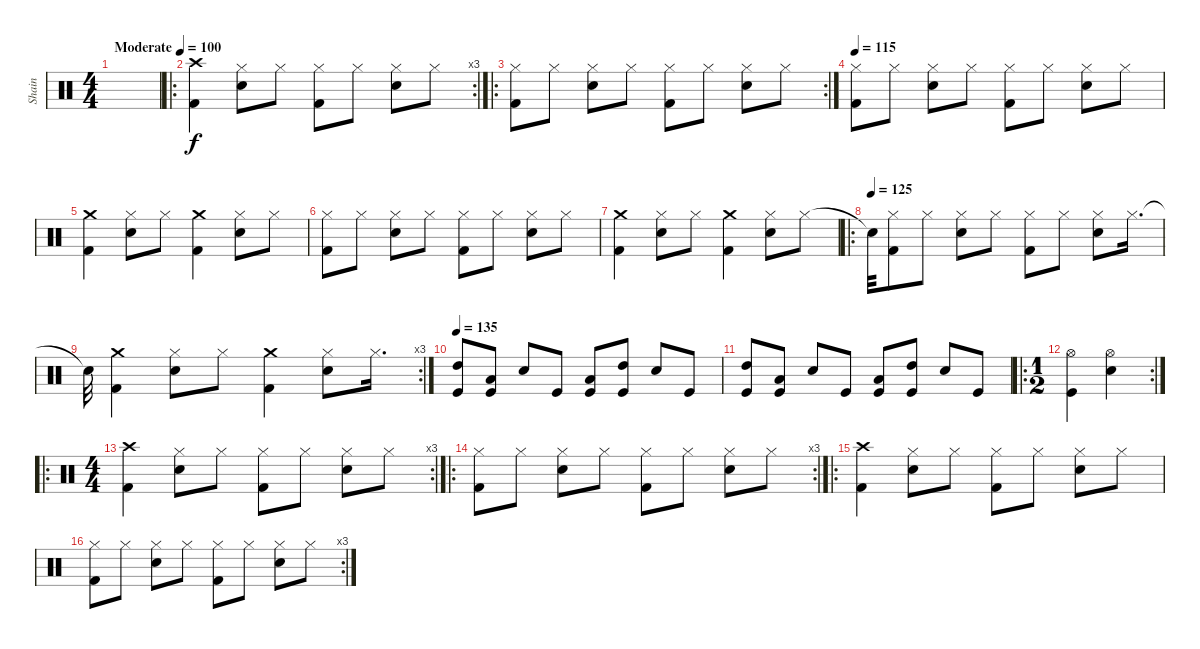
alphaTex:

\track ("Shain" "Shain") {instrument percussion}
\staff {score}
\articulation defaults
\ts (4 4)
\tempo (100 "Moderate")
\clef neutral
\ks c
|
\ro
\rc 3
("Kick (hit) 2" "Crash high (hit)").4 ("Hi-Hat (closed)" "Electric Snare (hit)").8 "Hi-Hat (closed)".8 ("Hi-Hat (closed)" "Kick (hit) 2").8 "Hi-Hat (closed)".8 ("Hi-Hat (closed)" "Electric Snare (hit)").8 "Hi-Hat (closed)".8 |
\ro
\rc 2
("Hi-Hat (closed)" "Kick (hit) 2").8 "Hi-Hat (closed)".8 ("Hi-Hat (closed)" "Electric Snare (hit)").8 "Hi-Hat (closed)".8 ("Hi-Hat (closed)" "Kick (hit) 2").8 "Hi-Hat (closed)".8 ("Hi-Hat (closed)" "Electric Snare (hit)").8 "Hi-Hat (closed)".8 |
\tempo 115
("Hi-Hat (closed)" "Kick (hit) 2").8 "Hi-Hat (closed)".8 ("Hi-Hat (closed)" "Electric Snare (hit)").8 "Hi-Hat (closed)".8 ("Hi-Hat (closed)" "Kick (hit) 2").8 "Hi-Hat (closed)".8 ("Hi-Hat (closed)" "Electric Snare (hit)").8 "Hi-Hat (closed)".8 |
("Crash medium (hit)" "Kick (hit) 2").4 ("Hi-Hat (closed)" "Electric Snare (hit)").8 "Hi-Hat (closed)".8 ("Crash medium (hit)" "Kick (hit) 2").4 ("Hi-Hat (closed)" "Electric Snare (hit)").8 "Hi-Hat (closed)".8 |
("Hi-Hat (closed)" "Kick (hit) 2").8 "Hi-Hat (closed)".8 ("Hi-Hat (closed)" "Electric Snare (hit)").8 "Hi-Hat (closed)".8 ("Hi-Hat (closed)" "Kick (hit) 2").8 "Hi-Hat (closed)".8 ("Hi-Hat (closed)" "Electric Snare (hit)").8 "Hi-Hat (closed)".8 |
("Crash medium (hit)" "Kick (hit) 2").4 ("Hi-Hat (closed)" "Electric Snare (hit)").8 "Hi-Hat (closed)".8 ("Crash medium (hit)" "Kick (hit) 2").4 ("Hi-Hat (closed)" "Electric Snare (hit)").8 "Hi-Hat (closed)".8 |
\ro
\tempo (125)
"Snare (hit)"{t}.32 ("Hi-Hat (closed)" "Kick (hit) 2").8 "Hi-Hat (closed)".8 ("Hi-Hat (closed)" "Electric Snare (hit)").8 "Hi-Hat (closed)".8 ("Hi-Hat (closed)" "Kick (hit) 2").8 "Hi-Hat (closed)".8 ("Hi-Hat (closed)" "Electric Snare (hit)").8 "Hi-Hat (closed)".16{d} |
\rc 3 "Snare (hit)"{t}.32
("Crash medium (hit)" "Kick (hit) 2").4 ("Hi-Hat (closed)" "Electric Snare (hit)").8 "Hi-Hat (closed)".8 ("Crash medium (hit)" "Kick (hit) 2").4 ("Hi-Hat (closed)" "Electric Snare (hit)").8 "Hi-Hat (closed)".16{d} |
\tempo 135
("High Tom (hit)" "Kick (hit)").8 ("Low Tom (hit)" "Kick (hit)").8 "Electric Snare (hit)".8 "Kick (hit)".8 ("Low Tom (hit)" "Kick (hit)").8 ("High Tom (hit)" "Kick (hit)").8 "Electric Snare (hit)".8 "Kick (hit)".8 |
("High Tom (hit)" "Kick (hit)").8 ("Low Tom (hit)" "Kick (hit)").8 "Electric Snare (hit)".8 "Kick (hit)".8 ("Low Tom (hit)" "Kick (hit)").8 ("High Tom (hit)" "Kick (hit)").8 "Electric Snare (hit)".8 "Kick (hit)".8 |
\ro
\rc 2
\ts (1 2)
("Hi-Hat (open)" "Kick (hit)").4 ("Hi-Hat (open)" "Electric Snare (hit)").4 |
\ro
\rc 3
\ts (4 4)
("Kick (hit) 2" "Crash high (hit)").4 ("Hi-Hat (closed)" "Electric Snare (hit)").8 "Hi-Hat (closed)".8 ("Hi-Hat (closed)" "Kick (hit) 2").8 "Hi-Hat (closed)".8 ("Hi-Hat (closed)" "Electric Snare (hit)").8 "Hi-Hat (closed)".8 |
\ro
\rc 3
("Hi-Hat (closed)" "Kick (hit) 2").8 "Hi-Hat (closed)".8 ("Hi-Hat (closed)" "Electric Snare (hit)").8 "Hi-Hat (closed)".8 ("Hi-Hat (closed)" "Kick (hit) 2").8 "Hi-Hat (closed)".8 ("Hi-Hat (closed)" "Electric Snare (hit)").8 "Hi-Hat (closed)".8 |
\ro
("Kick (hit) 2" "Crash high (hit)").4 ("Hi-Hat (closed)" "Electric Snare (hit)").8 "Hi-Hat (closed)".8 ("Hi-Hat (closed)" "Kick (hit) 2").8 "Hi-Hat (closed)".8 ("Hi-Hat (closed)" "Electric Snare (hit)").8 "Hi-Hat (closed)".8 |
\rc 3
("Hi-Hat (closed)" "Kick (hit) 2").8 "Hi-Hat (closed)".8 ("Hi-Hat (closed)" "Electric Snare (hit)").8 "Hi-Hat (closed)".8 ("Hi-Hat (closed)" "Kick (hit) 2").8 "Hi-Hat (closed)".8 ("Hi-Hat (closed)" "Electric Snare (hit)").8 "Hi-Hat (closed)".8
